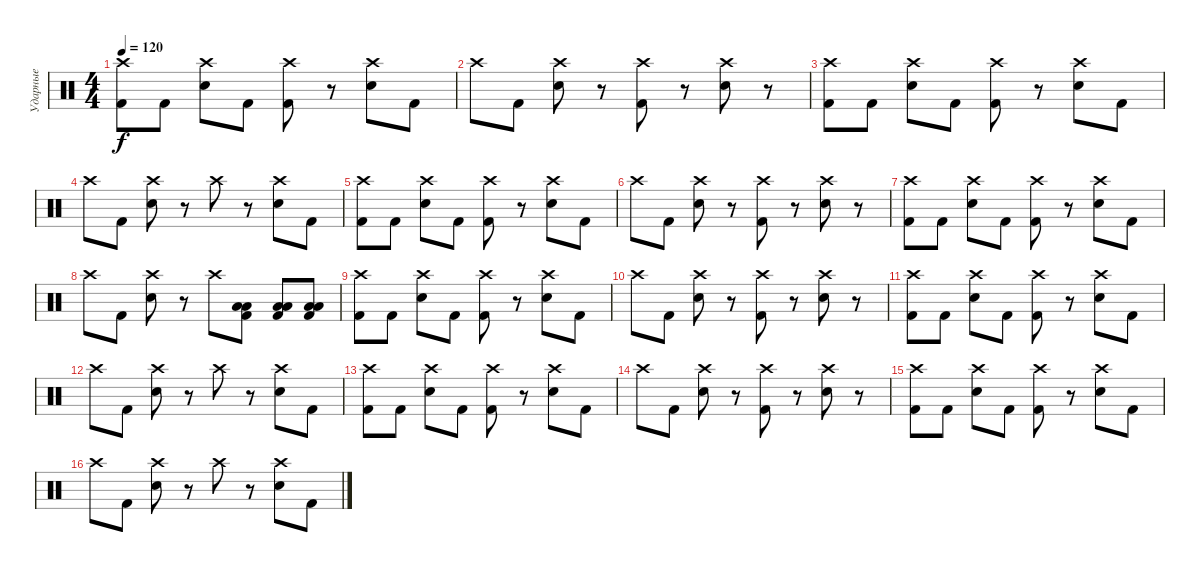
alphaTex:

\track ("Ударные" "Ударные") {instrument percussion}
\staff {score}
\articulation defaults
\ts (4 4)
\tempo 120
\clef neutral
\ks c
("Crash high (hit)" "Kick (hit) 2").8{dy f} "Kick (hit) 2".8 ("Crash high (hit)" "Electric Snare (hit)").8 "Kick (hit) 2".8 ("Crash high (hit)" "Kick (hit) 2").8 r.8 ("Crash high (hit)" "Electric Snare (hit)").8 "Kick (hit) 2".8 |
"Crash high (hit)".8 "Kick (hit) 2".8 ("Crash high (hit)" "Electric Snare (hit)").8 r.8 ("Crash high (hit)" "Kick (hit) 2").8 r.8 ("Crash high (hit)" "Electric Snare (hit)").8 r.8 |
("Crash high (hit)" "Kick (hit) 2").8 "Kick (hit) 2".8 ("Crash high (hit)" "Electric Snare (hit)").8 "Kick (hit) 2".8 ("Crash high (hit)" "Kick (hit) 2").8 r.8 ("Crash high (hit)" "Electric Snare (hit)").8 "Kick (hit) 2".8 |
"Crash high (hit)".8 "Kick (hit) 2".8 ("Crash high (hit)" "Electric Snare (hit)").8 r.8 "Crash high (hit)".8 r.8 ("Crash high (hit)" "Electric Snare (hit)").8 "Kick (hit) 2".8 |
("Crash high (hit)" "Kick (hit) 2").8 "Kick (hit) 2".8 ("Crash high (hit)" "Electric Snare (hit)").8 "Kick (hit) 2".8 ("Crash high (hit)" "Kick (hit) 2").8 r.8 ("Crash high (hit)" "Electric Snare (hit)").8 "Kick (hit) 2".8 |
"Crash high (hit)".8 "Kick (hit) 2".8 ("Crash high (hit)" "Electric Snare (hit)").8 r.8 ("Crash high (hit)" "Kick (hit) 2").8 r.8 ("Crash high (hit)" "Electric Snare (hit)").8 r.8 |
("Crash high (hit)" "Kick (hit) 2").8 "Kick (hit) 2".8 ("Crash high (hit)" "Electric Snare (hit)").8 "Kick (hit) 2".8 ("Crash high (hit)" "Kick (hit) 2").8 r.8 ("Crash high (hit)" "Electric Snare (hit)").8 "Kick (hit) 2".8 |
"Crash high (hit)".8 "Kick (hit) 2".8 ("Crash high (hit)" "Electric Snare (hit)").8 r.8 "Crash high (hit)".8 ("Low Tom (hit)" "Low Tom (hit)" "Kick (hit) 2").8 ("Low Tom (hit)" "Low Tom (hit)" "Kick (hit) 2").8 ("Low Tom (hit)" "Low Tom (hit)" "Kick (hit) 2").8 |
("Crash high (hit)" "Kick (hit) 2").8 "Kick (hit) 2".8 ("Crash high (hit)" "Electric Snare (hit)").8 "Kick (hit) 2".8 ("Crash high (hit)" "Kick (hit) 2").8 r.8 ("Crash high (hit)" "Electric Snare (hit)").8 "Kick (hit) 2".8 |
"Crash high (hit)".8 "Kick (hit) 2".8 ("Crash high (hit)" "Electric Snare (hit)").8 r.8 ("Crash high (hit)" "Kick (hit) 2").8 r.8 ("Crash high (hit)" "Electric Snare (hit)").8 r.8 |
("Crash high (hit)" "Kick (hit) 2").8 "Kick (hit) 2".8 ("Crash high (hit)" "Electric Snare (hit)").8 "Kick (hit) 2".8 ("Crash high (hit)" "Kick (hit) 2").8 r.8 ("Crash high (hit)" "Electric Snare (hit)").8 "Kick (hit) 2".8 |
"Crash high (hit)".8 "Kick (hit) 2".8 ("Crash high (hit)" "Electric Snare (hit)").8 r.8 "Crash high (hit)".8 r.8 ("Crash high (hit)" "Electric Snare (hit)").8 "Kick (hit) 2".8 |
("Crash high (hit)" "Kick (hit) 2").8 "Kick (hit) 2".8 ("Crash high (hit)" "Electric Snare (hit)").8 "Kick (hit) 2".8 ("Crash high (hit)" "Kick (hit) 2").8 r.8 ("Crash high (hit)" "Electric Snare (hit)").8 "Kick (hit) 2".8 |
"Crash high (hit)".8 "Kick (hit) 2".8 ("Crash high (hit)" "Electric Snare (hit)").8 r.8 ("Crash high (hit)" "Kick (hit) 2").8 r.8 ("Crash high (hit)" "Electric Snare (hit)").8 r.8 |
("Crash high (hit)" "Kick (hit) 2").8 "Kick (hit) 2".8 ("Crash high (hit)" "Electric Snare (hit)").8 "Kick (hit) 2".8 ("Crash high (hit)" "Kick (hit) 2").8 r.8 ("Crash high (hit)" "Electric Snare (hit)").8 "Kick (hit) 2".8 |
"Crash high (hit)".8 "Kick (hit) 2".8 ("Crash high (hit)" "Electric Snare (hit)").8 r.8 "Crash high (hit)".8 r.8 ("Crash high (hit)" "Electric Snare (hit)").8 "Kick (hit) 2".8
